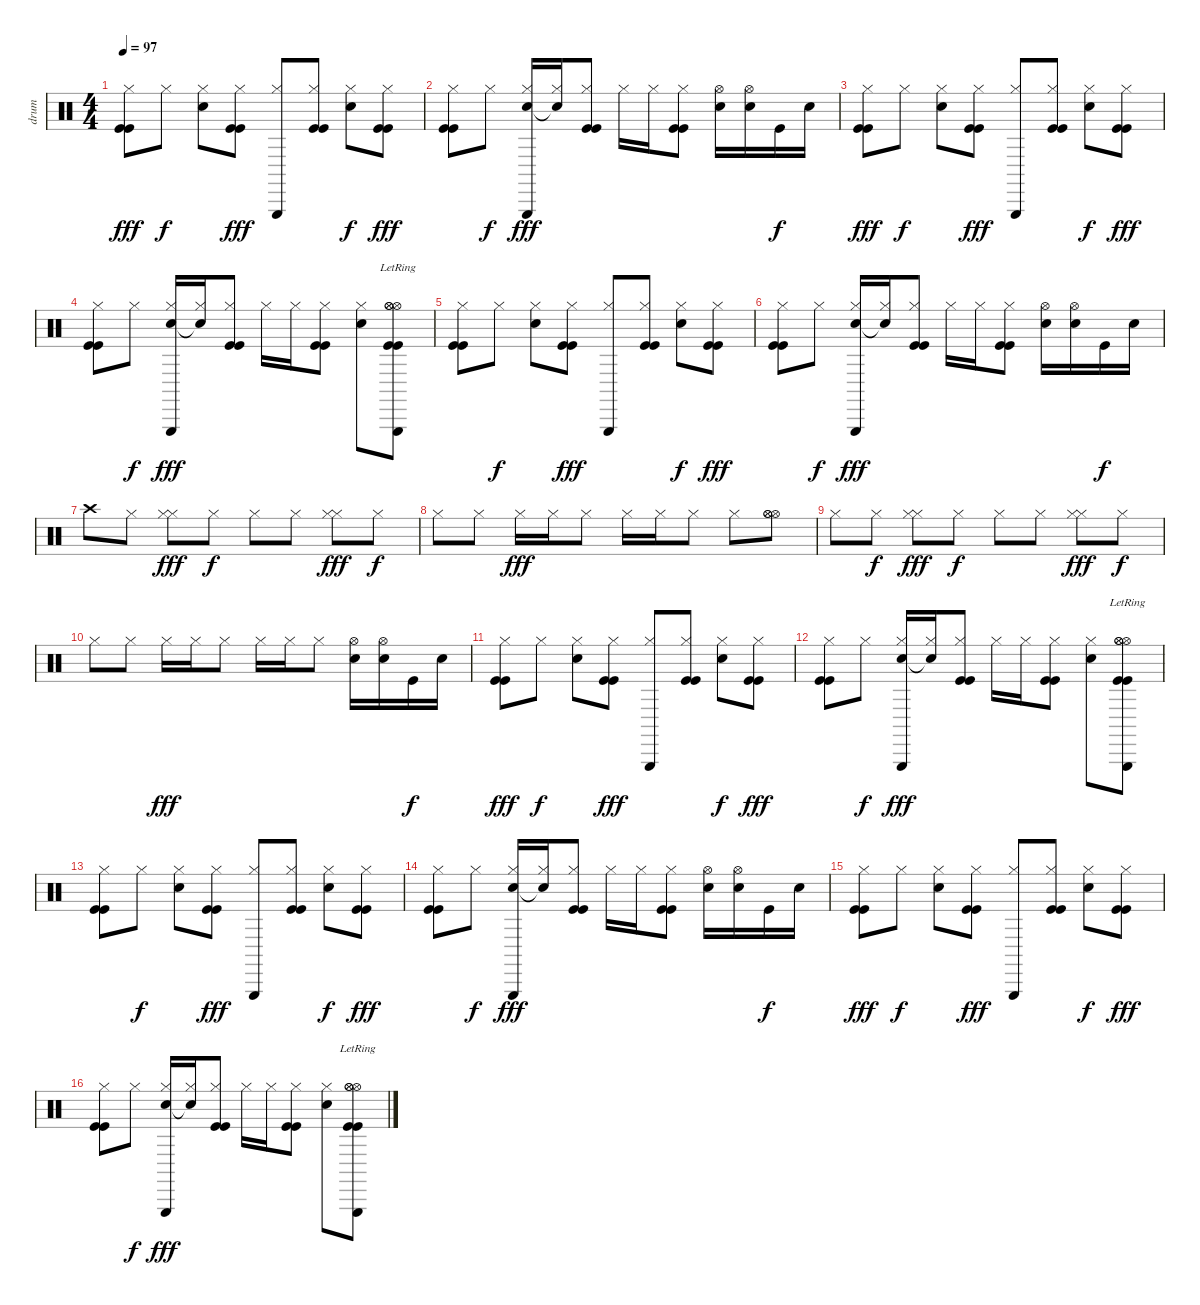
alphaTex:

\track ("drum" "drum") {instrument percussion}
\staff {score}
\articulation defaults
\ts (4 4)
\tempo 97
\clef neutral
\ks c
("Hi-Hat (closed)" "Kick (hit)" "Kick (hit)").8{dy fff} "Hi-Hat (closed)".8{dy f} ("Hi-Hat (closed)" "Electric Snare (hit)").8 ("Hi-Hat (closed)" "Kick (hit)" "Kick (hit)").8{dy fff} ("Hi-Hat (closed)" "Triangle (hit)").8 ("Hi-Hat (closed)" "Kick (hit)" "Kick (hit)").8 ("Hi-Hat (closed)" "Electric Snare (hit)").8{dy f} ("Hi-Hat (closed)" "Kick (hit)" "Kick (hit)").8{dy fff} |
("Hi-Hat (closed)" "Kick (hit)" "Kick (hit)").8 "Hi-Hat (closed)".8{dy f} ("Hi-Hat (closed)" "Electric Snare (hit)" "Triangle (hit)").16{dy fff} ("Hi-Hat (closed)" "Snare (hit)"{t}).16 ("Hi-Hat (closed)" "Kick (hit)" "Kick (hit)").8 "Hi-Hat (closed)".16 "Hi-Hat (closed)".16 ("Hi-Hat (closed)" "Kick (hit)" "Kick (hit)").8 ("Hi-Hat (open)" "Electric Snare (hit)").16 ("Hi-Hat (open)" "Electric Snare (hit)").16 "Kick (hit)".16{dy f} "Electric Snare (hit)".16 |
("Hi-Hat (closed)" "Kick (hit)" "Kick (hit)").8{dy fff} "Hi-Hat (closed)".8{dy f} ("Hi-Hat (closed)" "Electric Snare (hit)").8 ("Hi-Hat (closed)" "Kick (hit)" "Kick (hit)").8{dy fff} ("Hi-Hat (closed)" "Triangle (hit)").8 ("Hi-Hat (closed)" "Kick (hit)" "Kick (hit)").8 ("Hi-Hat (closed)" "Electric Snare (hit)").8{dy f} ("Hi-Hat (closed)" "Kick (hit)" "Kick (hit)").8{dy fff} |
("Hi-Hat (closed)" "Kick (hit)" "Kick (hit)").8 "Hi-Hat (closed)".8{dy f} ("Hi-Hat (closed)" "Electric Snare (hit)" "Triangle (hit)").16{dy fff} ("Hi-Hat (closed)" "Snare (hit)"{t}).16 ("Hi-Hat (closed)" "Kick (hit)" "Kick (hit)").8 "Hi-Hat (closed)".16 "Hi-Hat (closed)".16 ("Hi-Hat (closed)" "Kick (hit)" "Kick (hit)").8 ("Hi-Hat (closed)" "Electric Snare (hit)").8 ("Hi-Hat (open)" "Hi-Hat (open)" "Hi-Hat (open)" "Triangle (hit)"{lr} "Kick (hit)" "Kick (hit)").8 |
("Hi-Hat (closed)" "Kick (hit)" "Kick (hit)").8 "Hi-Hat (closed)".8{dy f} ("Hi-Hat (closed)" "Electric Snare (hit)").8 ("Hi-Hat (closed)" "Kick (hit)" "Kick (hit)").8{dy fff} ("Hi-Hat (closed)" "Triangle (hit)").8 ("Hi-Hat (closed)" "Kick (hit)" "Kick (hit)").8 ("Hi-Hat (closed)" "Electric Snare (hit)").8{dy f} ("Hi-Hat (closed)" "Kick (hit)" "Kick (hit)").8{dy fff} |
("Hi-Hat (closed)" "Kick (hit)" "Kick (hit)").8 "Hi-Hat (closed)".8{dy f} ("Hi-Hat (closed)" "Electric Snare (hit)" "Triangle (hit)").16{dy fff} ("Hi-Hat (closed)" "Snare (hit)"{t}).16 ("Hi-Hat (closed)" "Kick (hit)" "Kick (hit)").8 "Hi-Hat (closed)".16 "Hi-Hat (closed)".16 ("Hi-Hat (closed)" "Kick (hit)" "Kick (hit)").8 ("Hi-Hat (open)" "Electric Snare (hit)").16 ("Hi-Hat (open)" "Electric Snare (hit)").16 "Kick (hit)".16{dy f} "Electric Snare (hit)".16 |
"Crash high (hit)".8 "Hi-Hat (closed)".8 ("Hi-Hat (closed)" "Hi-Hat (closed)").8{dy fff} "Hi-Hat (closed)".8{dy f} "Hi-Hat (closed)".8 "Hi-Hat (closed)".8 ("Hi-Hat (closed)" "Hi-Hat (closed)").8{dy fff} "Hi-Hat (closed)".8{dy f} |
"Hi-Hat (closed)".8 "Hi-Hat (closed)".8 "Hi-Hat (closed)".16{dy fff} "Hi-Hat (closed)".16 "Hi-Hat (closed)".8 "Hi-Hat (closed)".16 "Hi-Hat (closed)".16 "Hi-Hat (closed)".8 "Hi-Hat (closed)".8 ("Hi-Hat (open)" "Hi-Hat (open)" "Hi-Hat (open)").8 |
"Hi-Hat (closed)".8 "Hi-Hat (closed)".8{dy f} ("Hi-Hat (closed)" "Hi-Hat (closed)").8{dy fff} "Hi-Hat (closed)".8{dy f} "Hi-Hat (closed)".8 "Hi-Hat (closed)".8 ("Hi-Hat (closed)" "Hi-Hat (closed)").8{dy fff} "Hi-Hat (closed)".8{dy f} |
"Hi-Hat (closed)".8 "Hi-Hat (closed)".8 "Hi-Hat (closed)".16{dy fff} "Hi-Hat (closed)".16 "Hi-Hat (closed)".8 "Hi-Hat (closed)".16 "Hi-Hat (closed)".16 "Hi-Hat (closed)".8 ("Hi-Hat (open)" "Electric Snare (hit)").16 ("Hi-Hat (open)" "Electric Snare (hit)").16 "Kick (hit)".16{dy f} "Electric Snare (hit)".16 |
("Hi-Hat (closed)" "Kick (hit)" "Kick (hit)").8{dy fff} "Hi-Hat (closed)".8{dy f} ("Hi-Hat (closed)" "Electric Snare (hit)").8 ("Hi-Hat (closed)" "Kick (hit)" "Kick (hit)").8{dy fff} ("Hi-Hat (closed)" "Triangle (hit)").8 ("Hi-Hat (closed)" "Kick (hit)" "Kick (hit)").8 ("Hi-Hat (closed)" "Electric Snare (hit)").8{dy f} ("Hi-Hat (closed)" "Kick (hit)" "Kick (hit)").8{dy fff} |
("Hi-Hat (closed)" "Kick (hit)" "Kick (hit)").8 "Hi-Hat (closed)".8{dy f} ("Hi-Hat (closed)" "Electric Snare (hit)" "Triangle (hit)").16{dy fff} ("Hi-Hat (closed)" "Snare (hit)"{t}).16 ("Hi-Hat (closed)" "Kick (hit)" "Kick (hit)").8 "Hi-Hat (closed)".16 "Hi-Hat (closed)".16 ("Hi-Hat (closed)" "Kick (hit)" "Kick (hit)").8 ("Hi-Hat (closed)" "Electric Snare (hit)").8 ("Hi-Hat (open)" "Hi-Hat (open)" "Hi-Hat (open)" "Triangle (hit)"{lr} "Kick (hit)" "Kick (hit)").8 |
("Hi-Hat (closed)" "Kick (hit)" "Kick (hit)").8 "Hi-Hat (closed)".8{dy f} ("Hi-Hat (closed)" "Electric Snare (hit)").8 ("Hi-Hat (closed)" "Kick (hit)" "Kick (hit)").8{dy fff} ("Hi-Hat (closed)" "Triangle (hit)").8 ("Hi-Hat (closed)" "Kick (hit)" "Kick (hit)").8 ("Hi-Hat (closed)" "Electric Snare (hit)").8{dy f} ("Hi-Hat (closed)" "Kick (hit)" "Kick (hit)").8{dy fff} |
("Hi-Hat (closed)" "Kick (hit)" "Kick (hit)").8 "Hi-Hat (closed)".8{dy f} ("Hi-Hat (closed)" "Electric Snare (hit)" "Triangle (hit)").16{dy fff} ("Hi-Hat (closed)" "Snare (hit)"{t}).16 ("Hi-Hat (closed)" "Kick (hit)" "Kick (hit)").8 "Hi-Hat (closed)".16 "Hi-Hat (closed)".16 ("Hi-Hat (closed)" "Kick (hit)" "Kick (hit)").8 ("Hi-Hat (open)" "Electric Snare (hit)").16 ("Hi-Hat (open)" "Electric Snare (hit)").16 "Kick (hit)".16{dy f} "Electric Snare (hit)".16 |
("Hi-Hat (closed)" "Kick (hit)" "Kick (hit)").8{dy fff} "Hi-Hat (closed)".8{dy f} ("Hi-Hat (closed)" "Electric Snare (hit)").8 ("Hi-Hat (closed)" "Kick (hit)" "Kick (hit)").8{dy fff} ("Hi-Hat (closed)" "Triangle (hit)").8 ("Hi-Hat (closed)" "Kick (hit)" "Kick (hit)").8 ("Hi-Hat (closed)" "Electric Snare (hit)").8{dy f} ("Hi-Hat (closed)" "Kick (hit)" "Kick (hit)").8{dy fff} |
("Hi-Hat (closed)" "Kick (hit)" "Kick (hit)").8 "Hi-Hat (closed)".8{dy f} ("Hi-Hat (closed)" "Electric Snare (hit)" "Triangle (hit)").16{dy fff} ("Hi-Hat (closed)" "Snare (hit)"{t}).16 ("Hi-Hat (closed)" "Kick (hit)" "Kick (hit)").8 "Hi-Hat (closed)".16 "Hi-Hat (closed)".16 ("Hi-Hat (closed)" "Kick (hit)" "Kick (hit)").8 ("Hi-Hat (closed)" "Electric Snare (hit)").8 ("Hi-Hat (open)" "Hi-Hat (open)" "Hi-Hat (open)" "Triangle (hit)"{lr} "Kick (hit)" "Kick (hit)").8
